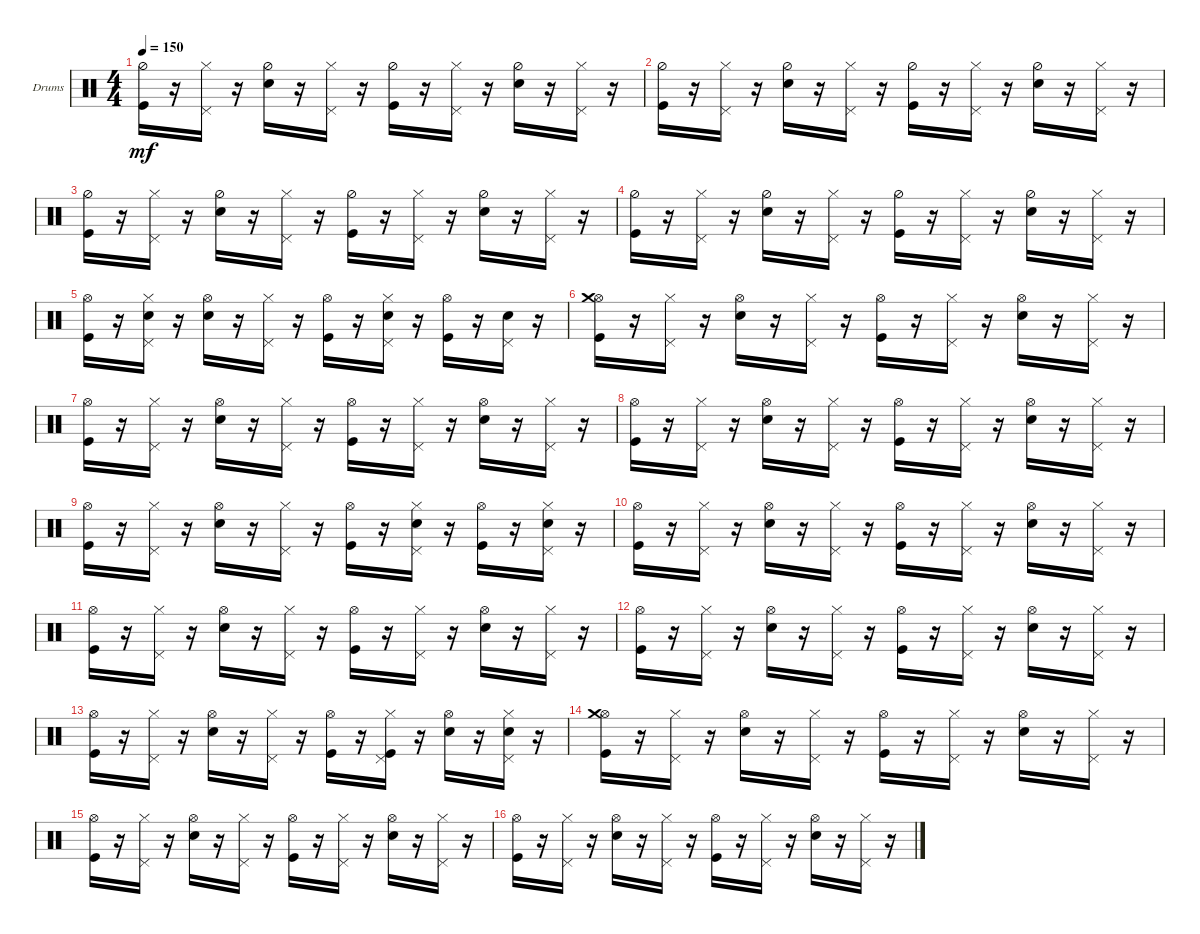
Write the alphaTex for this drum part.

\bracketExtendMode groupsimilarinstruments
\firstSystemTrackNameOrientation horizontal
\otherSystemsTrackNameOrientation horizontal
\track ("Drumkit" "Drums") {solo instrument percussion}
\staff {score}
\articulation defaults
\ts (4 4)
\tempo 150
\clef neutral
\ks c
("Kick (hit)" "Hi-Hat (half)").16{dy mf} r.16 ("Hi-Hat (closed)" "Pedal Hi-Hat (hit)").16 r.16 ("Snare (hit) 2" "Hi-Hat (half)").16 r.16 ("Hi-Hat (closed)" "Pedal Hi-Hat (hit)").16 r.16 ("Kick (hit)" "Hi-Hat (half)").16 r.16 ("Hi-Hat (closed)" "Pedal Hi-Hat (hit)").16 r.16 ("Snare (hit) 2" "Hi-Hat (half)").16 r.16 ("Hi-Hat (closed)" "Pedal Hi-Hat (hit)").16 r.16 |
("Kick (hit)" "Hi-Hat (half)").16 r.16 ("Hi-Hat (closed)" "Pedal Hi-Hat (hit)").16 r.16 ("Snare (hit) 2" "Hi-Hat (half)").16 r.16 ("Hi-Hat (closed)" "Pedal Hi-Hat (hit)").16 r.16 ("Kick (hit)" "Hi-Hat (half)").16 r.16 ("Hi-Hat (closed)" "Pedal Hi-Hat (hit)").16 r.16 ("Snare (hit) 2" "Hi-Hat (half)").16 r.16 ("Hi-Hat (closed)" "Pedal Hi-Hat (hit)").16 r.16 |
("Kick (hit)" "Hi-Hat (half)").16 r.16 ("Hi-Hat (closed)" "Pedal Hi-Hat (hit)").16 r.16 ("Snare (hit) 2" "Hi-Hat (half)").16 r.16 ("Hi-Hat (closed)" "Pedal Hi-Hat (hit)").16 r.16 ("Kick (hit)" "Hi-Hat (half)").16 r.16 ("Hi-Hat (closed)" "Pedal Hi-Hat (hit)").16 r.16 ("Snare (hit) 2" "Hi-Hat (half)").16 r.16 ("Hi-Hat (closed)" "Pedal Hi-Hat (hit)").16 r.16 |
("Kick (hit)" "Hi-Hat (half)").16 r.16 ("Hi-Hat (closed)" "Pedal Hi-Hat (hit)").16 r.16 ("Snare (hit) 2" "Hi-Hat (half)").16 r.16 ("Hi-Hat (closed)" "Pedal Hi-Hat (hit)").16 r.16 ("Kick (hit)" "Hi-Hat (half)").16 r.16 ("Hi-Hat (closed)" "Pedal Hi-Hat (hit)").16 r.16 ("Snare (hit) 2" "Hi-Hat (half)").16 r.16 ("Hi-Hat (closed)" "Pedal Hi-Hat (hit)").16 r.16 |
("Kick (hit)" "Hi-Hat (open)").16 r.16 ("Hi-Hat (closed)" "Snare (hit) 2" "Pedal Hi-Hat (hit)").16 r.16 ("Snare (hit) 2" "Hi-Hat (open)").16 r.16 ("Hi-Hat (closed)" "Pedal Hi-Hat (hit)").16 r.16 ("Kick (hit)" "Hi-Hat (open)").16 r.16 ("Hi-Hat (closed)" "Snare (hit) 2" "Pedal Hi-Hat (hit)").16 r.16 ("Hi-Hat (open)" "Kick (hit)").16 r.16 ("Snare (hit) 2" "Pedal Hi-Hat (hit)").16 r.16 |
("Kick (hit)" "Hi-Hat (open)" "Crash medium (hit)").16 r.16 ("Pedal Hi-Hat (hit)" "Hi-Hat (closed)").16 r.16 ("Snare (hit) 2" "Hi-Hat (open)").16 r.16 ("Pedal Hi-Hat (hit)" "Hi-Hat (closed)").16 r.16 ("Kick (hit)" "Hi-Hat (open)").16 r.16 ("Hi-Hat (closed)" "Pedal Hi-Hat (hit)").16 r.16 ("Snare (hit) 2" "Hi-Hat (open)").16 r.16 ("Hi-Hat (closed)" "Pedal Hi-Hat (hit)").16 r.16 |
("Kick (hit)" "Hi-Hat (open)").16 r.16 ("Hi-Hat (closed)" "Pedal Hi-Hat (hit)").16 r.16 ("Snare (hit) 2" "Hi-Hat (open)").16 r.16 ("Hi-Hat (closed)" "Pedal Hi-Hat (hit)").16 r.16 ("Kick (hit)" "Hi-Hat (open)").16 r.16 ("Hi-Hat (closed)" "Pedal Hi-Hat (hit)").16 r.16 ("Snare (hit) 2" "Hi-Hat (open)").16 r.16 ("Hi-Hat (closed)" "Pedal Hi-Hat (hit)").16 r.16 |
("Kick (hit)" "Hi-Hat (open)").16 r.16 ("Hi-Hat (closed)" "Pedal Hi-Hat (hit)").16 r.16 ("Snare (hit) 2" "Hi-Hat (open)").16 r.16 ("Hi-Hat (closed)" "Pedal Hi-Hat (hit)").16 r.16 ("Kick (hit)" "Hi-Hat (open)").16 r.16 ("Hi-Hat (closed)" "Pedal Hi-Hat (hit)").16 r.16 ("Snare (hit) 2" "Hi-Hat (open)").16 r.16 ("Hi-Hat (closed)" "Pedal Hi-Hat (hit)").16 r.16 |
("Kick (hit)" "Hi-Hat (open)").16 r.16 ("Hi-Hat (closed)" "Pedal Hi-Hat (hit)").16 r.16 ("Snare (hit) 2" "Hi-Hat (open)").16 r.16 ("Hi-Hat (closed)" "Pedal Hi-Hat (hit)").16 r.16 ("Kick (hit)" "Hi-Hat (open)").16 r.16 ("Hi-Hat (closed)" "Pedal Hi-Hat (hit)" "Snare (hit) 2").16 r.16 ("Hi-Hat (open)" "Kick (hit)").16 r.16 ("Hi-Hat (closed)" "Pedal Hi-Hat (hit)" "Snare (hit) 2").16 r.16 |
("Kick (hit)" "Hi-Hat (open)").16 r.16 ("Hi-Hat (closed)" "Pedal Hi-Hat (hit)").16 r.16 ("Snare (hit) 2" "Hi-Hat (open)").16 r.16 ("Hi-Hat (closed)" "Pedal Hi-Hat (hit)").16 r.16 ("Kick (hit)" "Hi-Hat (open)").16 r.16 ("Hi-Hat (closed)" "Pedal Hi-Hat (hit)").16 r.16 ("Snare (hit) 2" "Hi-Hat (open)").16 r.16 ("Hi-Hat (closed)" "Pedal Hi-Hat (hit)").16 r.16 |
("Kick (hit)" "Hi-Hat (open)").16 r.16 ("Hi-Hat (closed)" "Pedal Hi-Hat (hit)").16 r.16 ("Snare (hit) 2" "Hi-Hat (open)").16 r.16 ("Hi-Hat (closed)" "Pedal Hi-Hat (hit)").16 r.16 ("Kick (hit)" "Hi-Hat (open)").16 r.16 ("Hi-Hat (closed)" "Pedal Hi-Hat (hit)").16 r.16 ("Snare (hit) 2" "Hi-Hat (open)").16 r.16 ("Hi-Hat (closed)" "Pedal Hi-Hat (hit)").16 r.16 |
("Kick (hit)" "Hi-Hat (open)").16 r.16 ("Hi-Hat (closed)" "Pedal Hi-Hat (hit)").16 r.16 ("Snare (hit) 2" "Hi-Hat (open)").16 r.16 ("Hi-Hat (closed)" "Pedal Hi-Hat (hit)").16 r.16 ("Kick (hit)" "Hi-Hat (open)").16 r.16 ("Hi-Hat (closed)" "Pedal Hi-Hat (hit)").16 r.16 ("Snare (hit) 2" "Hi-Hat (open)").16 r.16 ("Hi-Hat (closed)" "Pedal Hi-Hat (hit)").16 r.16 |
("Kick (hit)" "Hi-Hat (open)").16 r.16 ("Hi-Hat (closed)" "Pedal Hi-Hat (hit)").16 r.16 ("Snare (hit) 2" "Hi-Hat (open)").16 r.16 ("Hi-Hat (closed)" "Pedal Hi-Hat (hit)").16 r.16 ("Kick (hit)" "Hi-Hat (open)").16 r.16 ("Hi-Hat (closed)" "Kick (hit)" "Pedal Hi-Hat (hit)").16 r.16 ("Snare (hit) 2" "Hi-Hat (open)").16 r.16 ("Hi-Hat (closed)" "Snare (hit) 2" "Pedal Hi-Hat (hit)").16 r.16 |
("Kick (hit)" "Hi-Hat (open)" "Crash medium (hit)").16 r.16 ("Pedal Hi-Hat (hit)" "Hi-Hat (closed)").16 r.16 ("Snare (hit) 2" "Hi-Hat (open)").16 r.16 ("Pedal Hi-Hat (hit)" "Hi-Hat (closed)").16 r.16 ("Kick (hit)" "Hi-Hat (open)").16 r.16 ("Hi-Hat (closed)" "Pedal Hi-Hat (hit)").16 r.16 ("Snare (hit) 2" "Hi-Hat (open)").16 r.16 ("Hi-Hat (closed)" "Pedal Hi-Hat (hit)").16 r.16 |
("Kick (hit)" "Hi-Hat (open)").16 r.16 ("Hi-Hat (closed)" "Pedal Hi-Hat (hit)").16 r.16 ("Snare (hit) 2" "Hi-Hat (open)").16 r.16 ("Hi-Hat (closed)" "Pedal Hi-Hat (hit)").16 r.16 ("Kick (hit)" "Hi-Hat (open)").16 r.16 ("Hi-Hat (closed)" "Pedal Hi-Hat (hit)").16 r.16 ("Snare (hit) 2" "Hi-Hat (open)").16 r.16 ("Hi-Hat (closed)" "Pedal Hi-Hat (hit)").16 r.16 |
("Kick (hit)" "Hi-Hat (open)").16 r.16 ("Hi-Hat (closed)" "Pedal Hi-Hat (hit)").16 r.16 ("Snare (hit) 2" "Hi-Hat (open)").16 r.16 ("Hi-Hat (closed)" "Pedal Hi-Hat (hit)").16 r.16 ("Kick (hit)" "Hi-Hat (open)").16 r.16 ("Hi-Hat (closed)" "Pedal Hi-Hat (hit)").16 r.16 ("Snare (hit) 2" "Hi-Hat (open)").16 r.16 ("Hi-Hat (closed)" "Pedal Hi-Hat (hit)").16 r.16
